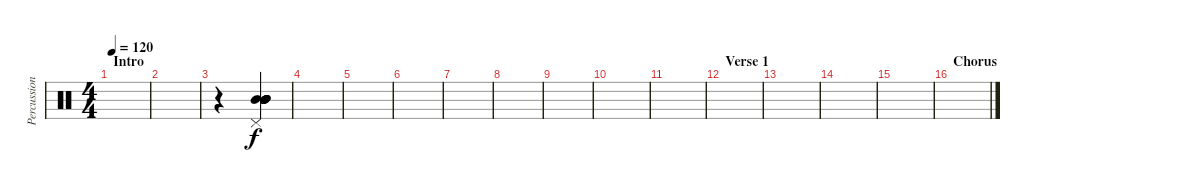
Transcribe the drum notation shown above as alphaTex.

\track ("Percussion" "Percussion") {instrument percussion}
\staff {score}
\articulation defaults
\ts (4 4)
\section ("" "Intro")
\tempo 120
\clef neutral
\ks c
|
|
r.4 ("Mid Tom (hit)" "Mid Tom (hit)" "Mid Tom (hit)" "Mid Tom (hit)" "Mid Tom (hit)" "Pedal Hi-Hat (hit)").4 |
|
|
|
|
|
|
|
|
\section ("" "Verse 1")
|
|
|
|
\section ("" "Chorus")
